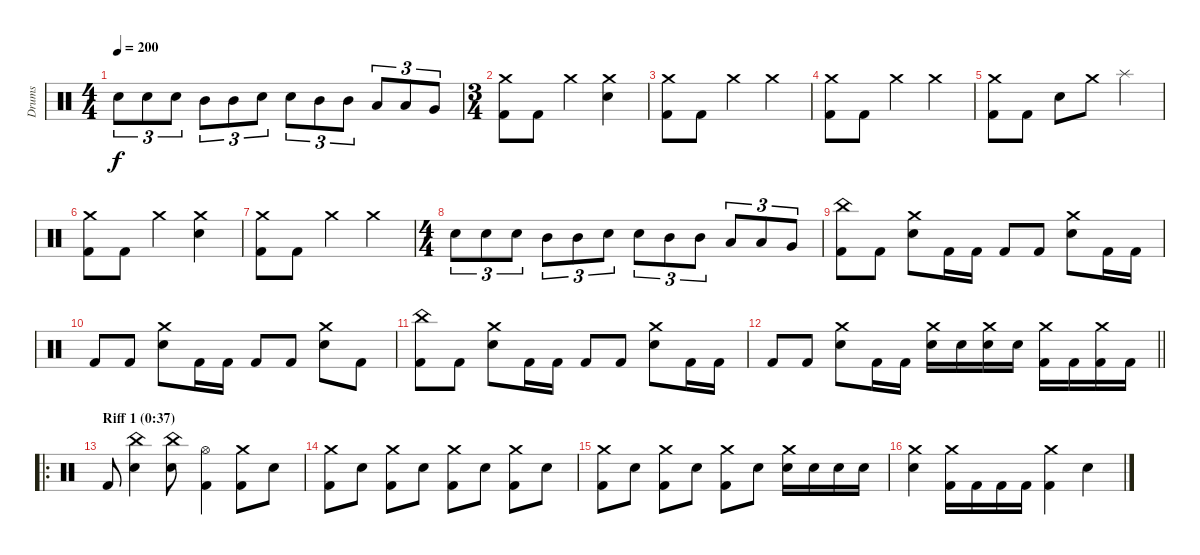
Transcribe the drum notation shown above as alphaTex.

\track ("Drums" "Drums") {instrument percussion}
\staff {score}
\articulation defaults
\ts (4 4)
\tempo 200
\clef neutral
\ks c "Electric Snare (hit)".8{tu (3 2) dy f} "Electric Snare (hit)".8{tu (3 2)} "Electric Snare (hit)".8{tu (3 2)} "Mid Tom (hit)".8{tu (3 2)} "Mid Tom (hit)".8{tu (3 2)} "Electric Snare (hit)".8{tu (3 2)} "Electric Snare (hit)".8{tu (3 2)} "Mid Tom (hit)".8{tu (3 2)} "Mid Tom (hit)".8{tu (3 2)} "Low Tom (hit)".8{tu (3 2)} "Low Tom (hit)".8{tu (3 2)} "Very Low Tom (hit)".8{tu (3 2)}
|
\ts (3 4)
("Crash medium (hit)" "Kick (hit) 2").8 "Kick (hit) 2".8 "Crash medium (hit)".4 ("Crash medium (hit)" "Electric Snare (hit)").4 |
("Crash medium (hit)" "Kick (hit) 2").8 "Kick (hit) 2".8 "Crash medium (hit)".4 "Crash medium (hit)".4 |
("Crash medium (hit)" "Kick (hit) 2").8 "Kick (hit) 2".8 "Crash medium (hit)".4 "Crash medium (hit)".4 |
("Crash medium (hit)" "Kick (hit) 2").8 "Kick (hit) 2".8 "Electric Snare (hit)".8 "Crash medium (hit)".8 "Splash (hit)".4 |
("Crash medium (hit)" "Kick (hit) 2").8 "Kick (hit) 2".8 "Crash medium (hit)".4 ("Crash medium (hit)" "Electric Snare (hit)").4 |
("Crash medium (hit)" "Kick (hit) 2").8 "Kick (hit) 2".8 "Crash medium (hit)".4 "Crash medium (hit)".4 |
\ts (4 4)
"Electric Snare (hit)".8{tu (3 2)} "Electric Snare (hit)".8{tu (3 2)} "Electric Snare (hit)".8{tu (3 2)} "Mid Tom (hit)".8{tu (3 2)} "Mid Tom (hit)".8{tu (3 2)} "Electric Snare (hit)".8{tu (3 2)} "Electric Snare (hit)".8{tu (3 2)} "Mid Tom (hit)".8{tu (3 2)} "Mid Tom (hit)".8{tu (3 2)} "Low Tom (hit)".8{tu (3 2)} "Low Tom (hit)".8{tu (3 2)} "Very Low Tom (hit)".8{tu (3 2)} |
("China (hit)" "Kick (hit) 2").8 "Kick (hit) 2".8 ("Crash medium (hit)" "Electric Snare (hit)").8 "Kick (hit) 2".16 "Kick (hit) 2".16 "Kick (hit) 2".8 "Kick (hit) 2".8 ("Crash medium (hit)" "Electric Snare (hit)").8 "Kick (hit) 2".16 "Kick (hit) 2".16 |
"Kick (hit) 2".8 "Kick (hit) 2".8 ("Crash medium (hit)" "Electric Snare (hit)").8 "Kick (hit) 2".16 "Kick (hit) 2".16 "Kick (hit) 2".8 "Kick (hit) 2".8 ("Crash medium (hit)" "Electric Snare (hit)").8 "Kick (hit) 2".8 |
("China (hit)" "Kick (hit) 2").8 "Kick (hit) 2".8 ("Crash medium (hit)" "Electric Snare (hit)").8 "Kick (hit) 2".16 "Kick (hit) 2".16 "Kick (hit) 2".8 "Kick (hit) 2".8 ("Crash medium (hit)" "Electric Snare (hit)").8 "Kick (hit) 2".16 "Kick (hit) 2".16 |
\barLineRight lightlight "Kick (hit) 2".8 "Kick (hit) 2".8
("Crash medium (hit)" "Electric Snare (hit)").8 "Kick (hit) 2".16 "Kick (hit) 2".16 ("Crash medium (hit)" "Electric Snare (hit)").16 "Electric Snare (hit)".16 ("Crash medium (hit)" "Electric Snare (hit)").16 "Electric Snare (hit)".16 ("Crash medium (hit)" "Kick (hit) 2").16 "Kick (hit) 2".16 ("Crash medium (hit)" "Kick (hit) 2").16 "Kick (hit) 2".16 |
\ro
\section ("" "Riff 1 (0:37)")
"Kick (hit) 2".8 ("China (hit)" "Electric Snare (hit)").4 ("China (hit)" "Electric Snare (hit)").8 ("Hi-Hat (open)" "Kick (hit) 2").4 ("Crash medium (hit)" "Kick (hit) 2").8 "Electric Snare (hit)".8 |
("Crash medium (hit)" "Kick (hit) 2").8 "Electric Snare (hit)".8 ("Crash medium (hit)" "Kick (hit) 2").8 "Electric Snare (hit)".8 ("Crash medium (hit)" "Kick (hit) 2").8 "Electric Snare (hit)".8 ("Crash medium (hit)" "Kick (hit) 2").8 "Electric Snare (hit)".8 |
("Crash medium (hit)" "Kick (hit) 2").8 "Electric Snare (hit)".8 ("Crash medium (hit)" "Kick (hit) 2").8 "Electric Snare (hit)".8 ("Crash medium (hit)" "Kick (hit) 2").8 "Electric Snare (hit)".8 ("Crash medium (hit)" "Electric Snare (hit)").16 "Electric Snare (hit)".16 "Electric Snare (hit)".16 "Electric Snare (hit)".16 |
("Crash medium (hit)" "Electric Snare (hit)").4 ("Crash medium (hit)" "Kick (hit) 2").16 "Kick (hit) 2".16 "Kick (hit) 2".16 "Kick (hit) 2".16 ("Crash medium (hit)" "Kick (hit) 2").4 "Electric Snare (hit)".4
